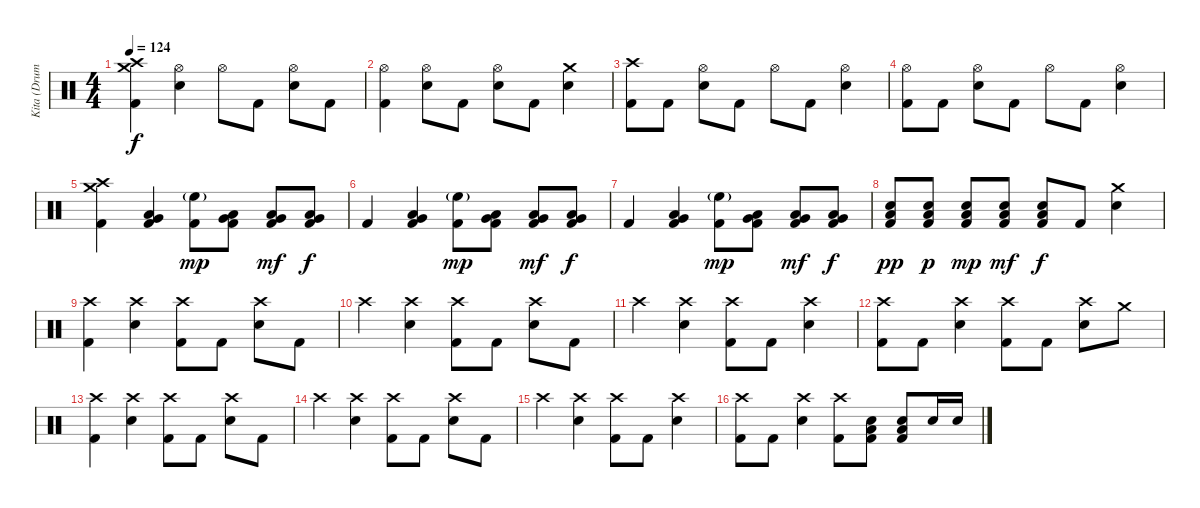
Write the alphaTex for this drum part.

\track ("Kita (Drums)" "Kita (Drum") {instrument percussion}
\staff {score}
\articulation defaults
\ts (4 4)
\tempo 124
\clef neutral
\ks c
("Crash medium (hit)" "Crash high (hit)" "Kick (hit) 2").4{dy f} ("Hi-Hat (open)" "Electric Snare (hit)").4 "Hi-Hat (open)".8 "Kick (hit) 2".8 ("Hi-Hat (open)" "Electric Snare (hit)").8 "Kick (hit) 2".8 |
("Hi-Hat (open)" "Kick (hit) 2").4 ("Hi-Hat (open)" "Electric Snare (hit)").8 "Kick (hit) 2".8 ("Hi-Hat (open)" "Electric Snare (hit)").8 "Kick (hit) 2".8 ("Crash medium (hit)" "Electric Snare (hit)").4 |
("Crash high (hit)" "Kick (hit) 2").8 "Kick (hit) 2".8 ("Hi-Hat (open)" "Electric Snare (hit)").8 "Kick (hit) 2".8 "Hi-Hat (open)".8 "Kick (hit) 2".8 ("Hi-Hat (open)" "Electric Snare (hit)").4 |
("Hi-Hat (open)" "Kick (hit) 2").8 "Kick (hit) 2".8 ("Hi-Hat (open)" "Electric Snare (hit)").8 "Kick (hit) 2".8 "Hi-Hat (open)".8 "Kick (hit) 2".8 ("Hi-Hat (open)" "Electric Snare (hit)").4 |
("Crash medium (hit)" "Crash high (hit)" "Kick (hit) 2").4 ("Very Low Tom (hit)" "Low Tom (hit)" "Kick (hit) 2").4 ("High Floor Tom (hit)"{g} "Kick (hit) 2").8{dy mp} ("Very Low Tom (hit)" "Low Tom (hit)" "Kick (hit) 2").8 ("Very Low Tom (hit)" "Low Tom (hit)" "Kick (hit) 2").8{dy mf} ("Low Floor Tom (hit)" "Very Low Tom (hit)" "Kick (hit) 2").8{dy f} |
"Kick (hit) 2".4 ("Very Low Tom (hit)" "Low Tom (hit)" "Kick (hit) 2").4 ("High Floor Tom (hit)"{g} "Kick (hit) 2").8{dy mp} ("Very Low Tom (hit)" "Low Tom (hit)" "Kick (hit) 2").8 ("Very Low Tom (hit)" "Low Tom (hit)" "Kick (hit) 2").8{dy mf} ("Low Floor Tom (hit)" "Very Low Tom (hit)" "Kick (hit) 2").8{dy f} |
"Kick (hit) 2".4 ("Very Low Tom (hit)" "Low Tom (hit)" "Kick (hit) 2").4 ("High Floor Tom (hit)"{g} "Kick (hit) 2").8{dy mp} ("Very Low Tom (hit)" "Low Tom (hit)" "Kick (hit) 2").8 ("Very Low Tom (hit)" "Low Tom (hit)" "Kick (hit) 2").8{dy mf} ("Low Floor Tom (hit)" "Very Low Tom (hit)" "Kick (hit) 2").8{dy f} |
("Low Floor Tom (hit)" "Electric Snare (hit)" "Kick (hit) 2").8{dy pp} ("Low Floor Tom (hit)" "Electric Snare (hit)" "Kick (hit) 2").8{dy p} ("Low Floor Tom (hit)" "Electric Snare (hit)" "Kick (hit) 2").8{dy mp} ("Low Floor Tom (hit)" "Electric Snare (hit)" "Kick (hit) 2").8{dy mf} ("Low Floor Tom (hit)" "Electric Snare (hit)" "Kick (hit) 2").8{dy f} "Kick (hit) 2".8 ("Crash medium (hit)" "Electric Snare (hit)").4 |
("Crash high (hit)" "Kick (hit) 2").4 ("Crash high (hit)" "Electric Snare (hit)").4 ("Crash high (hit)" "Kick (hit) 2").8 "Kick (hit) 2".8 ("Crash high (hit)" "Electric Snare (hit)").8 "Kick (hit) 2".8 |
"Crash high (hit)".4 ("Crash high (hit)" "Electric Snare (hit)").4 ("Crash high (hit)" "Kick (hit) 2").8 "Kick (hit) 2".8 ("Crash high (hit)" "Electric Snare (hit)").8 "Kick (hit) 2".8 |
"Crash high (hit)".4 ("Crash high (hit)" "Electric Snare (hit)").4 ("Crash high (hit)" "Kick (hit) 2").8 "Kick (hit) 2".8 ("Crash high (hit)" "Electric Snare (hit)").4 |
("Crash high (hit)" "Kick (hit) 2").8 "Kick (hit) 2".8 ("Crash high (hit)" "Electric Snare (hit)").4 ("Crash high (hit)" "Kick (hit) 2").8 "Kick (hit) 2".8 ("Crash high (hit)" "Electric Snare (hit)").8 "Crash medium (hit)".8 |
("Crash high (hit)" "Kick (hit) 2").4 ("Crash high (hit)" "Electric Snare (hit)").4 ("Crash high (hit)" "Kick (hit) 2").8 "Kick (hit) 2".8 ("Crash high (hit)" "Electric Snare (hit)").8 "Kick (hit) 2".8 |
"Crash high (hit)".4 ("Crash high (hit)" "Electric Snare (hit)").4 ("Crash high (hit)" "Kick (hit) 2").8 "Kick (hit) 2".8 ("Crash high (hit)" "Electric Snare (hit)").8 "Kick (hit) 2".8 |
"Crash high (hit)".4 ("Crash high (hit)" "Electric Snare (hit)").4 ("Crash high (hit)" "Kick (hit) 2").8 "Kick (hit) 2".8 ("Crash high (hit)" "Electric Snare (hit)").4 |
("Crash high (hit)" "Kick (hit) 2").8 "Kick (hit) 2".8 ("Crash high (hit)" "Electric Snare (hit)").4 ("Crash high (hit)" "Kick (hit) 2").8 ("Low Floor Tom (hit)" "Electric Snare (hit)" "Kick (hit) 2").8 ("Low Floor Tom (hit)" "Electric Snare (hit)" "Kick (hit) 2").8 "Electric Snare (hit)".16 "Electric Snare (hit)".16
